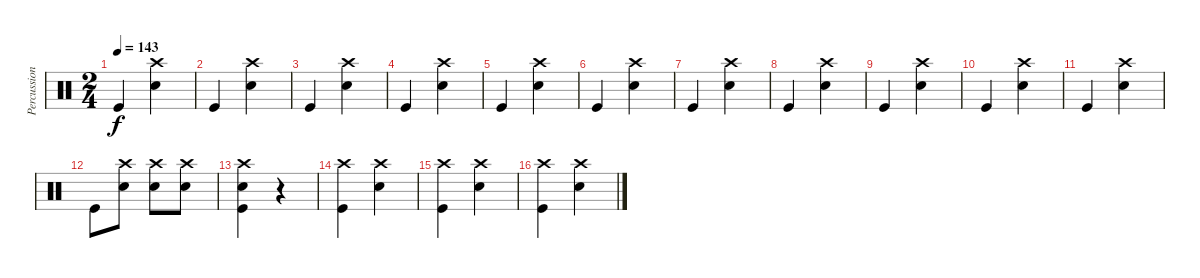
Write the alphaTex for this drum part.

\track ("Percussion" "Percussion") {instrument percussion}
\staff {score}
\articulation defaults
\ts (2 4)
\tempo 143
\clef neutral
\ks c "Kick (hit)".4{dy f}
("Snare (hit) 2"{x} "Crash high (hit)"{x}).4 |
"Kick (hit)".4 ("Snare (hit) 2"{x} "Crash high (hit)"{x}).4 |
"Kick (hit)".4 ("Snare (hit) 2"{x} "Crash high (hit)"{x}).4 |
"Kick (hit)".4 ("Snare (hit) 2"{x} "Crash high (hit)"{x}).4 |
"Kick (hit)".4 ("Snare (hit) 2"{x} "Crash high (hit)"{x}).4 |
"Kick (hit)".4 ("Snare (hit) 2" "Crash high (hit)").4 |
"Kick (hit)".4 ("Snare (hit) 2" "Crash high (hit)").4 |
"Kick (hit)".4 ("Snare (hit) 2" "Crash high (hit)").4 |
"Kick (hit)".4 ("Snare (hit) 2" "Crash high (hit)").4 |
"Kick (hit)".4 ("Snare (hit) 2" "Crash high (hit)").4 |
"Kick (hit)".4 ("Snare (hit) 2" "Crash high (hit)").4 |
"Kick (hit)".8 ("Snare (hit) 2" "Crash high (hit)").8 ("Snare (hit) 2" "Crash high (hit)").8 ("Snare (hit) 2" "Crash high (hit)").8 |
("Snare (hit) 2" "Crash high (hit)" "Kick (hit)").4 r.4 |
("Kick (hit)" "Crash high (hit)").4 ("Snare (hit) 2"{x} "Crash high (hit)").4 |
("Kick (hit)" "Crash high (hit)").4 ("Snare (hit) 2"{x} "Crash high (hit)").4 |
("Kick (hit)" "Crash high (hit)").4 ("Snare (hit) 2"{x} "Crash high (hit)").4
